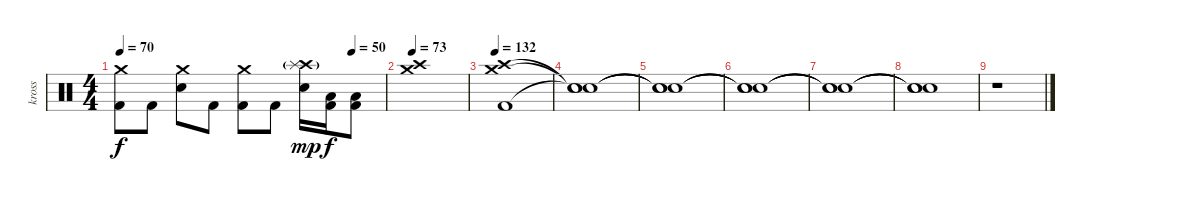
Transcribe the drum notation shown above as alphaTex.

\track ("kross" "kross") {instrument percussion}
\staff {score}
\articulation defaults
\ts (4 4)
\tempo 70
\tempo (50 0.875)
\clef neutral
\ks c
("Crash medium (hit)" "Kick (hit) 2").8{dy f} "Kick (hit) 2".8 ("Crash medium (hit)" "Electric Snare (hit)").8 "Kick (hit) 2".8 ("Crash medium (hit)" "Kick (hit) 2").8 "Kick (hit) 2".8 ("Crash high (hit)"{g} "Splash (hit)" "Electric Snare (hit)").16{dy mp} ("Low Floor Tom (hit)" "Kick (hit) 2").16{dy f} ("Low Floor Tom (hit)" "Kick (hit) 2").8 |
\tempo 73
("Crash medium (hit)" "Crash high (hit)").1 |
\tempo 132
("Crash medium (hit)" "Crash high (hit)" "Kick (hit) 2").1 |
("Snare (hit)"{t} "Snare (hit)"{t} "Snare (hit)"{t}).1 |
("Snare (hit)"{t} "Snare (hit)"{t} "Snare (hit)"{t}).1 |
("Snare (hit)"{t} "Snare (hit)"{t} "Snare (hit)"{t}).1 |
("Snare (hit)"{t} "Snare (hit)"{t} "Snare (hit)"{t}).1 |
("Snare (hit)"{t} "Snare (hit)"{t} "Snare (hit)"{t}).1 |
r.1
